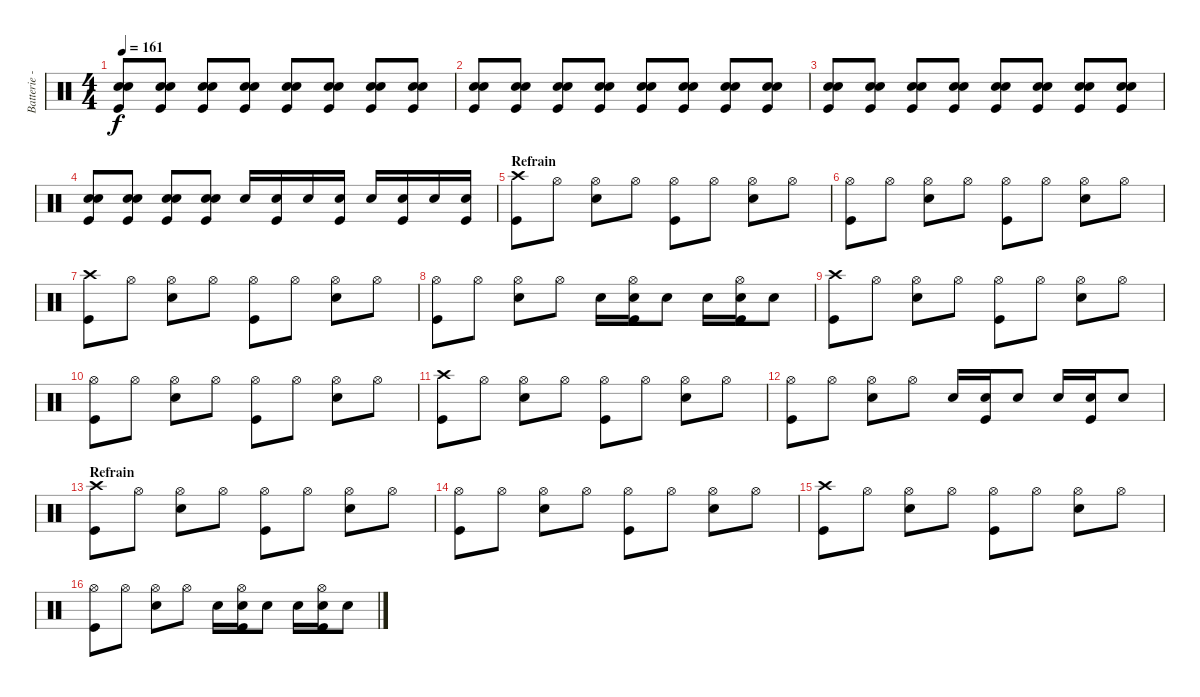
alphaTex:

\track ("Batterie - Alex" "Batterie -") {instrument percussion}
\staff {score}
\articulation defaults
\ts (4 4)
\tempo 161
\clef neutral
\ks c
("Electric Snare (hit)" "Snare (hit) 2" "Kick (hit)").8{dy f} ("Electric Snare (hit)" "Snare (hit) 2" "Kick (hit)").8 ("Electric Snare (hit)" "Snare (hit) 2" "Kick (hit)").8 ("Electric Snare (hit)" "Snare (hit) 2" "Kick (hit)").8 ("Electric Snare (hit)" "Snare (hit) 2" "Kick (hit)").8 ("Electric Snare (hit)" "Snare (hit) 2" "Kick (hit)").8 ("Electric Snare (hit)" "Snare (hit) 2" "Kick (hit)").8 ("Electric Snare (hit)" "Snare (hit) 2" "Kick (hit)").8 |
("Electric Snare (hit)" "Snare (hit) 2" "Kick (hit)").8 ("Electric Snare (hit)" "Snare (hit) 2" "Kick (hit)").8 ("Electric Snare (hit)" "Snare (hit) 2" "Kick (hit)").8 ("Electric Snare (hit)" "Snare (hit) 2" "Kick (hit)").8 ("Electric Snare (hit)" "Snare (hit) 2" "Kick (hit)").8 ("Electric Snare (hit)" "Snare (hit) 2" "Kick (hit)").8 ("Electric Snare (hit)" "Snare (hit) 2" "Kick (hit)").8 ("Electric Snare (hit)" "Snare (hit) 2" "Kick (hit)").8 |
("Electric Snare (hit)" "Snare (hit) 2" "Kick (hit)").8 ("Electric Snare (hit)" "Snare (hit) 2" "Kick (hit)").8 ("Electric Snare (hit)" "Snare (hit) 2" "Kick (hit)").8 ("Electric Snare (hit)" "Snare (hit) 2" "Kick (hit)").8 ("Electric Snare (hit)" "Snare (hit) 2" "Kick (hit)").8 ("Electric Snare (hit)" "Snare (hit) 2" "Kick (hit)").8 ("Electric Snare (hit)" "Snare (hit) 2" "Kick (hit)").8 ("Electric Snare (hit)" "Snare (hit) 2" "Kick (hit)").8 |
("Electric Snare (hit)" "Snare (hit) 2" "Kick (hit)").8 ("Electric Snare (hit)" "Snare (hit) 2" "Kick (hit)").8 ("Electric Snare (hit)" "Snare (hit) 2" "Kick (hit)").8 ("Electric Snare (hit)" "Snare (hit) 2" "Kick (hit)").8 "Electric Snare (hit)".16 ("Electric Snare (hit)" "Kick (hit)").16 "Electric Snare (hit)".16 ("Electric Snare (hit)" "Kick (hit)").16 "Electric Snare (hit)".16 ("Electric Snare (hit)" "Kick (hit)").16 "Electric Snare (hit)".16 ("Electric Snare (hit)" "Kick (hit)").16 |
\section ("" "Refrain")
("Crash high (hit)" "Kick (hit)").8 "Hi-Hat (open)".8 ("Hi-Hat (open)" "Electric Snare (hit)").8 "Hi-Hat (open)".8 ("Hi-Hat (open)" "Kick (hit)").8 "Hi-Hat (open)".8 ("Hi-Hat (open)" "Electric Snare (hit)").8 "Hi-Hat (open)".8 |
("Hi-Hat (open)" "Kick (hit)").8 "Hi-Hat (open)".8 ("Hi-Hat (open)" "Electric Snare (hit)").8 "Hi-Hat (open)".8 ("Hi-Hat (open)" "Kick (hit)").8 "Hi-Hat (open)".8 ("Hi-Hat (open)" "Electric Snare (hit)").8 "Hi-Hat (open)".8 |
("Crash high (hit)" "Kick (hit)").8 "Hi-Hat (open)".8 ("Hi-Hat (open)" "Electric Snare (hit)").8 "Hi-Hat (open)".8 ("Hi-Hat (open)" "Kick (hit)").8 "Hi-Hat (open)".8 ("Hi-Hat (open)" "Electric Snare (hit)").8 "Hi-Hat (open)".8 |
("Hi-Hat (open)" "Kick (hit)").8 "Hi-Hat (open)".8 ("Hi-Hat (open)" "Electric Snare (hit)").8 "Hi-Hat (open)".8 "Electric Snare (hit)".16 ("Hi-Hat (open)" "Electric Snare (hit)" "Kick (hit)").16 "Electric Snare (hit)".8 "Electric Snare (hit)".16 ("Hi-Hat (open)" "Electric Snare (hit)" "Kick (hit)").16 "Electric Snare (hit)".8 |
("Crash high (hit)" "Kick (hit)").8 "Hi-Hat (open)".8 ("Hi-Hat (open)" "Electric Snare (hit)").8 "Hi-Hat (open)".8 ("Hi-Hat (open)" "Kick (hit)").8 "Hi-Hat (open)".8 ("Hi-Hat (open)" "Electric Snare (hit)").8 "Hi-Hat (open)".8 |
("Hi-Hat (open)" "Kick (hit)").8 "Hi-Hat (open)".8 ("Hi-Hat (open)" "Electric Snare (hit)").8 "Hi-Hat (open)".8 ("Hi-Hat (open)" "Kick (hit)").8 "Hi-Hat (open)".8 ("Hi-Hat (open)" "Electric Snare (hit)").8 "Hi-Hat (open)".8 |
("Crash high (hit)" "Kick (hit)").8 "Hi-Hat (open)".8 ("Hi-Hat (open)" "Electric Snare (hit)").8 "Hi-Hat (open)".8 ("Hi-Hat (open)" "Kick (hit)").8 "Hi-Hat (open)".8 ("Hi-Hat (open)" "Electric Snare (hit)").8 "Hi-Hat (open)".8 |
("Hi-Hat (open)" "Kick (hit)").8 "Hi-Hat (open)".8 ("Hi-Hat (open)" "Electric Snare (hit)").8 "Hi-Hat (open)".8 "Electric Snare (hit)".16 ("Electric Snare (hit)" "Kick (hit)").16 "Electric Snare (hit)".8 "Electric Snare (hit)".16 ("Electric Snare (hit)" "Kick (hit)").16 "Electric Snare (hit)".8 |
\section ("" "Refrain")
("Crash high (hit)" "Kick (hit)").8 "Hi-Hat (open)".8 ("Hi-Hat (open)" "Electric Snare (hit)").8 "Hi-Hat (open)".8 ("Hi-Hat (open)" "Kick (hit)").8 "Hi-Hat (open)".8 ("Hi-Hat (open)" "Electric Snare (hit)").8 "Hi-Hat (open)".8 |
("Hi-Hat (open)" "Kick (hit)").8 "Hi-Hat (open)".8 ("Hi-Hat (open)" "Electric Snare (hit)").8 "Hi-Hat (open)".8 ("Hi-Hat (open)" "Kick (hit)").8 "Hi-Hat (open)".8 ("Hi-Hat (open)" "Electric Snare (hit)").8 "Hi-Hat (open)".8 |
("Crash high (hit)" "Kick (hit)").8 "Hi-Hat (open)".8 ("Hi-Hat (open)" "Electric Snare (hit)").8 "Hi-Hat (open)".8 ("Hi-Hat (open)" "Kick (hit)").8 "Hi-Hat (open)".8 ("Hi-Hat (open)" "Electric Snare (hit)").8 "Hi-Hat (open)".8 |
("Hi-Hat (open)" "Kick (hit)").8 "Hi-Hat (open)".8 ("Hi-Hat (open)" "Electric Snare (hit)").8 "Hi-Hat (open)".8 "Electric Snare (hit)".16 ("Hi-Hat (open)" "Electric Snare (hit)" "Kick (hit)").16 "Electric Snare (hit)".8 "Electric Snare (hit)".16 ("Hi-Hat (open)" "Electric Snare (hit)" "Kick (hit)").16 "Electric Snare (hit)".8
